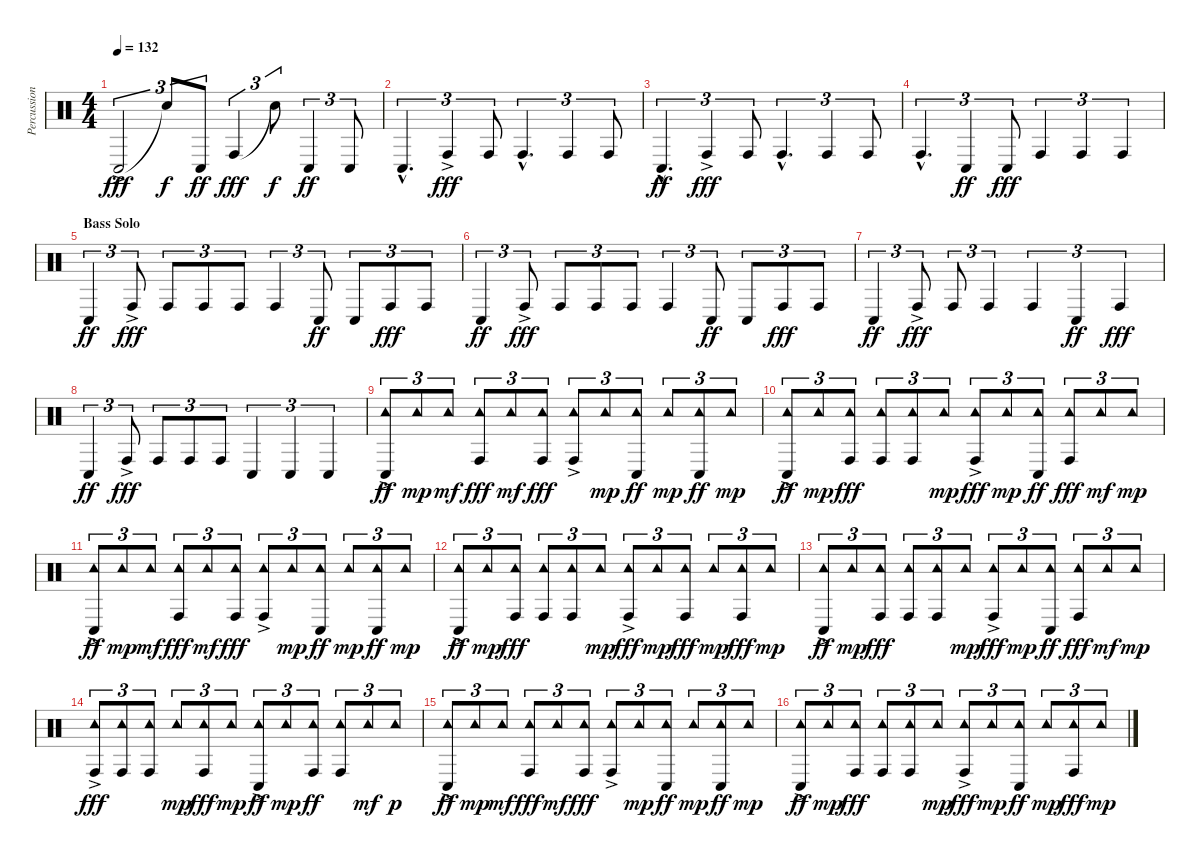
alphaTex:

\track ("Percussion" "Percussion") {instrument percussion}
\staff {score}
\articulation defaults
\ts (4 4)
\tempo 132
\clef neutral
\ks c "Conga low (hit)"{ac}.2{tu (3 2) dy fff} "Snare (hit)"{t}.8{tu (3 2) dy f} "Conga low (hit)".8{tu (3 2) dy ff} "Conga high (hit)".4{tu (3 2) dy fff} "Snare (hit)"{t}.8{tu (3 2) dy f} "Conga low (hit)".4{tu (3 2) dy ff} "Conga low (hit)".8{tu (3 2)}
|
"Conga low (hit)"{hac}.4{d tu (3 2)} "Conga high (hit)"{ac}.4{tu (3 2) dy fff} "Conga high (hit)".8{tu (3 2)} "Conga high (hit)"{hac}.4{d tu (3 2)} "Conga high (hit)".4{tu (3 2)} "Conga high (hit)".8{tu (3 2)} |
"Conga low (hit)"{hac}.4{d tu (3 2) dy ff} "Conga high (hit)"{ac}.4{tu (3 2) dy fff} "Conga high (hit)".8{tu (3 2)} "Conga high (hit)"{hac}.4{d tu (3 2)} "Conga high (hit)".4{tu (3 2)} "Conga high (hit)".8{tu (3 2)} |
"Conga high (hit)"{hac}.4{d tu (3 2)} "Conga low (hit)".4{tu (3 2) dy ff} "Conga low (hit)".8{tu (3 2) dy fff} "Conga high (hit)".4{tu (3 2)} "Conga high (hit)".4{tu (3 2)} "Conga high (hit)".4{tu (3 2)} |
\section ("" "Bass Solo")
"Conga low (hit)".4{tu (3 2) dy ff} "Conga high (hit)"{ac}.8{tu (3 2) dy fff} "Conga high (hit)".8{tu (3 2)} "Conga high (hit)".8{tu (3 2)} "Conga high (hit)".8{tu (3 2)} "Conga high (hit)".4{tu (3 2)} "Conga low (hit)".8{tu (3 2) dy ff} "Conga low (hit)".8{tu (3 2)} "Conga high (hit)".8{tu (3 2) dy fff} "Conga high (hit)".8{tu (3 2)} |
"Conga low (hit)".4{tu (3 2) dy ff} "Conga high (hit)"{ac}.8{tu (3 2) dy fff} "Conga high (hit)".8{tu (3 2)} "Conga high (hit)".8{tu (3 2)} "Conga high (hit)".8{tu (3 2)} "Conga high (hit)".4{tu (3 2)} "Conga low (hit)".8{tu (3 2) dy ff} "Conga low (hit)".8{tu (3 2)} "Conga high (hit)".8{tu (3 2) dy fff} "Conga high (hit)".8{tu (3 2)} |
"Conga low (hit)".4{tu (3 2) dy ff} "Conga high (hit)"{ac}.8{tu (3 2) dy fff} "Conga high (hit)".8{tu (3 2)} "Conga high (hit)".4{tu (3 2)} "Conga high (hit)".4{tu (3 2)} "Conga low (hit)".4{tu (3 2) dy ff} "Conga high (hit)".4{tu (3 2) dy fff} |
"Conga low (hit)".4{tu (3 2) dy ff} "Conga high (hit)"{ac}.8{tu (3 2) dy fff} "Conga high (hit)".8{tu (3 2)} "Conga high (hit)".8{tu (3 2)} "Conga high (hit)".8{tu (3 2)} "Conga low (hit)".4{tu (3 2)} "Conga low (hit)".4{tu (3 2)} "Conga low (hit)".4{tu (3 2)} |
("Tambourine (hit)"{ac} "Conga low (hit)").8{tu (3 2) dy ff} "Tambourine (hit)".8{tu (3 2) dy mp} "Tambourine (hit)".8{tu (3 2) dy mf} ("Tambourine (hit)" "Conga high (hit)").8{tu (3 2) dy fff} "Tambourine (hit)".8{tu (3 2) dy mf} ("Tambourine (hit)" "Conga high (hit)").8{tu (3 2) dy fff} ("Tambourine (hit)"{ac} "Conga high (hit)").8{tu (3 2)} "Tambourine (hit)".8{tu (3 2) dy mp} ("Tambourine (hit)" "Conga low (hit)").8{tu (3 2) dy ff} "Tambourine (hit)".8{tu (3 2) dy mp} ("Tambourine (hit)" "Conga low (hit)").8{tu (3 2) dy ff} "Tambourine (hit)".8{tu (3 2) dy mp} |
("Tambourine (hit)"{ac} "Conga low (hit)").8{tu (3 2) dy ff} "Tambourine (hit)".8{tu (3 2) dy mp} ("Tambourine (hit)" "Conga high (hit)").8{tu (3 2) dy fff} ("Tambourine (hit)" "Conga high (hit)").8{tu (3 2)} ("Tambourine (hit)" "Conga high (hit)").8{tu (3 2)} "Tambourine (hit)".8{tu (3 2) dy mp} ("Tambourine (hit)"{ac} "Conga high (hit)").8{tu (3 2) dy fff} "Tambourine (hit)".8{tu (3 2) dy mp} ("Tambourine (hit)" "Conga low (hit)").8{tu (3 2) dy ff} ("Tambourine (hit)" "Conga high (hit)").8{tu (3 2) dy fff} "Tambourine (hit)".8{tu (3 2) dy mf} "Tambourine (hit)".8{tu (3 2) dy mp} |
("Tambourine (hit)"{ac} "Conga low (hit)").8{tu (3 2) dy ff} "Tambourine (hit)".8{tu (3 2) dy mp} "Tambourine (hit)".8{tu (3 2) dy mf} ("Tambourine (hit)" "Conga high (hit)").8{tu (3 2) dy fff} "Tambourine (hit)".8{tu (3 2) dy mf} ("Tambourine (hit)" "Conga high (hit)").8{tu (3 2) dy fff} ("Tambourine (hit)"{ac} "Conga high (hit)").8{tu (3 2)} "Tambourine (hit)".8{tu (3 2) dy mp} ("Tambourine (hit)" "Conga low (hit)").8{tu (3 2) dy ff} "Tambourine (hit)".8{tu (3 2) dy mp} ("Tambourine (hit)" "Conga low (hit)").8{tu (3 2) dy ff} "Tambourine (hit)".8{tu (3 2) dy mp} |
("Tambourine (hit)"{ac} "Conga low (hit)").8{tu (3 2) dy ff} "Tambourine (hit)".8{tu (3 2) dy mp} ("Tambourine (hit)" "Conga high (hit)").8{tu (3 2) dy fff} ("Tambourine (hit)" "Conga high (hit)").8{tu (3 2)} ("Tambourine (hit)" "Conga high (hit)").8{tu (3 2)} "Tambourine (hit)".8{tu (3 2) dy mp} ("Tambourine (hit)"{ac} "Conga high (hit)").8{tu (3 2) dy fff} "Tambourine (hit)".8{tu (3 2) dy mp} ("Tambourine (hit)" "Conga high (hit)").8{tu (3 2) dy fff} "Tambourine (hit)".8{tu (3 2) dy mp} ("Tambourine (hit)" "Conga high (hit)").8{tu (3 2) dy fff} "Tambourine (hit)".8{tu (3 2) dy mp} |
("Tambourine (hit)"{ac} "Conga low (hit)").8{tu (3 2) dy ff} "Tambourine (hit)".8{tu (3 2) dy mp} ("Tambourine (hit)" "Conga high (hit)").8{tu (3 2) dy fff} ("Tambourine (hit)" "Conga high (hit)").8{tu (3 2)} ("Tambourine (hit)" "Conga high (hit)").8{tu (3 2)} "Tambourine (hit)".8{tu (3 2) dy mp} ("Tambourine (hit)"{ac} "Conga high (hit)").8{tu (3 2) dy fff} "Tambourine (hit)".8{tu (3 2) dy mp} ("Tambourine (hit)" "Conga low (hit)").8{tu (3 2) dy ff} ("Tambourine (hit)" "Conga high (hit)").8{tu (3 2) dy fff} "Tambourine (hit)".8{tu (3 2) dy mf} "Tambourine (hit)".8{tu (3 2) dy mp} |
("Tambourine (hit)"{ac} "Conga high (hit)").8{tu (3 2) dy fff} ("Tambourine (hit)" "Conga high (hit)").8{tu (3 2)} ("Tambourine (hit)" "Conga high (hit)").8{tu (3 2)} "Tambourine (hit)".8{tu (3 2) dy mp} ("Tambourine (hit)" "Conga high (hit)").8{tu (3 2) dy fff} "Tambourine (hit)".8{tu (3 2) dy mp} ("Tambourine (hit)"{ac} "Conga low (hit)").8{tu (3 2) dy ff} "Tambourine (hit)".8{tu (3 2) dy mp} ("Tambourine (hit)" "Conga high (hit)").8{tu (3 2) dy ff} ("Tambourine (hit)" "Conga high (hit)").8{tu (3 2)} "Tambourine (hit)".8{tu (3 2) dy mf} "Tambourine (hit)".8{tu (3 2) dy p} |
("Tambourine (hit)"{ac} "Conga low (hit)").8{tu (3 2) dy ff} "Tambourine (hit)".8{tu (3 2) dy mp} "Tambourine (hit)".8{tu (3 2) dy mf} ("Tambourine (hit)" "Conga high (hit)").8{tu (3 2) dy fff} "Tambourine (hit)".8{tu (3 2) dy mf} ("Tambourine (hit)" "Conga high (hit)").8{tu (3 2) dy fff} ("Tambourine (hit)"{ac} "Conga high (hit)").8{tu (3 2)} "Tambourine (hit)".8{tu (3 2) dy mp} ("Tambourine (hit)" "Conga low (hit)").8{tu (3 2) dy ff} "Tambourine (hit)".8{tu (3 2) dy mp} ("Tambourine (hit)" "Conga low (hit)").8{tu (3 2) dy ff} "Tambourine (hit)".8{tu (3 2) dy mp} |
("Tambourine (hit)"{ac} "Conga low (hit)").8{tu (3 2) dy ff} "Tambourine (hit)".8{tu (3 2) dy mp} ("Tambourine (hit)" "Conga high (hit)").8{tu (3 2) dy fff} ("Tambourine (hit)" "Conga high (hit)").8{tu (3 2)} ("Tambourine (hit)" "Conga high (hit)").8{tu (3 2)} "Tambourine (hit)".8{tu (3 2) dy mp} ("Tambourine (hit)"{ac} "Conga high (hit)").8{tu (3 2) dy fff} "Tambourine (hit)".8{tu (3 2) dy mp} ("Tambourine (hit)" "Conga low (hit)").8{tu (3 2) dy ff} "Tambourine (hit)".8{tu (3 2) dy mp} ("Tambourine (hit)" "Conga high (hit)").8{tu (3 2) dy fff} "Tambourine (hit)".8{tu (3 2) dy mp}
